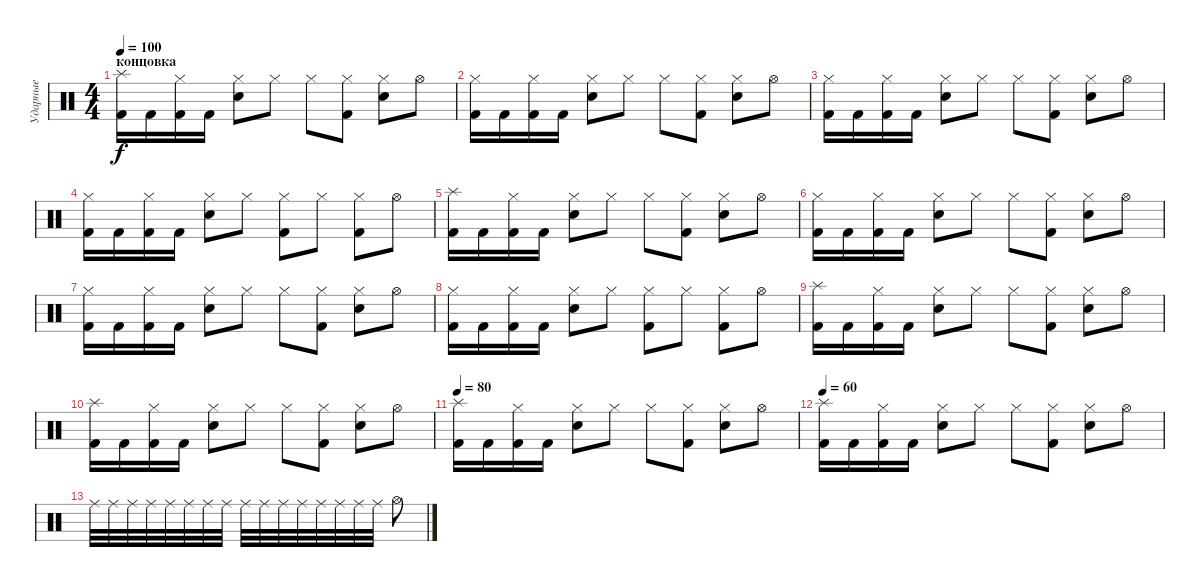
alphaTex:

\track ("Ударные" "Ударные") {instrument percussion}
\staff {score}
\articulation defaults
\ts (4 4)
\section ("" "концовка")
\tempo 100
\clef neutral
\ks c
("Splash (hit)" "Kick (hit) 2").16{dy f} "Kick (hit) 2".16 ("Hi-Hat (closed)" "Kick (hit) 2").16 "Kick (hit) 2".16 ("Hi-Hat (closed)" "Snare (hit) 2").8 "Hi-Hat (closed)".8 "Hi-Hat (closed)".8 ("Hi-Hat (closed)" "Kick (hit) 2").8 ("Hi-Hat (closed)" "Snare (hit) 2").8 "Hi-Hat (open)".8 |
("Hi-Hat (closed)" "Kick (hit) 2").16 "Kick (hit) 2".16 ("Hi-Hat (closed)" "Kick (hit) 2").16 "Kick (hit) 2".16 ("Hi-Hat (closed)" "Snare (hit) 2").8 "Hi-Hat (closed)".8 "Hi-Hat (closed)".8 ("Hi-Hat (closed)" "Kick (hit) 2").8 ("Hi-Hat (closed)" "Snare (hit) 2").8 "Hi-Hat (open)".8 |
("Hi-Hat (closed)" "Kick (hit) 2").16 "Kick (hit) 2".16 ("Hi-Hat (closed)" "Kick (hit) 2").16 "Kick (hit) 2".16 ("Hi-Hat (closed)" "Snare (hit) 2").8 "Hi-Hat (closed)".8 "Hi-Hat (closed)".8 ("Hi-Hat (closed)" "Kick (hit) 2").8 ("Hi-Hat (closed)" "Snare (hit) 2").8 "Hi-Hat (open)".8 |
("Hi-Hat (closed)" "Kick (hit) 2").16 "Kick (hit) 2".16 ("Hi-Hat (closed)" "Kick (hit) 2").16 "Kick (hit) 2".16 ("Hi-Hat (closed)" "Snare (hit) 2").8 "Hi-Hat (closed)".8 ("Hi-Hat (closed)" "Kick (hit) 2").8 "Hi-Hat (closed)".8 ("Hi-Hat (closed)" "Kick (hit) 2").8 "Hi-Hat (open)".8 |
("Splash (hit)" "Kick (hit) 2").16 "Kick (hit) 2".16 ("Hi-Hat (closed)" "Kick (hit) 2").16 "Kick (hit) 2".16 ("Hi-Hat (closed)" "Snare (hit) 2").8 "Hi-Hat (closed)".8 "Hi-Hat (closed)".8 ("Hi-Hat (closed)" "Kick (hit) 2").8 ("Hi-Hat (closed)" "Snare (hit) 2").8 "Hi-Hat (open)".8 |
("Hi-Hat (closed)" "Kick (hit) 2").16 "Kick (hit) 2".16 ("Hi-Hat (closed)" "Kick (hit) 2").16 "Kick (hit) 2".16 ("Hi-Hat (closed)" "Snare (hit) 2").8 "Hi-Hat (closed)".8 "Hi-Hat (closed)".8 ("Hi-Hat (closed)" "Kick (hit) 2").8 ("Hi-Hat (closed)" "Snare (hit) 2").8 "Hi-Hat (open)".8 |
("Hi-Hat (closed)" "Kick (hit) 2").16 "Kick (hit) 2".16 ("Hi-Hat (closed)" "Kick (hit) 2").16 "Kick (hit) 2".16 ("Hi-Hat (closed)" "Snare (hit) 2").8 "Hi-Hat (closed)".8 "Hi-Hat (closed)".8 ("Hi-Hat (closed)" "Kick (hit) 2").8 ("Hi-Hat (closed)" "Snare (hit) 2").8 "Hi-Hat (open)".8 |
("Hi-Hat (closed)" "Kick (hit) 2").16 "Kick (hit) 2".16 ("Hi-Hat (closed)" "Kick (hit) 2").16 "Kick (hit) 2".16 ("Hi-Hat (closed)" "Snare (hit) 2").8 "Hi-Hat (closed)".8 ("Hi-Hat (closed)" "Kick (hit) 2").8 "Hi-Hat (closed)".8 ("Hi-Hat (closed)" "Kick (hit) 2").8 "Hi-Hat (open)".8 |
("Splash (hit)" "Kick (hit) 2").16 "Kick (hit) 2".16 ("Hi-Hat (closed)" "Kick (hit) 2").16 "Kick (hit) 2".16 ("Hi-Hat (closed)" "Snare (hit) 2").8 "Hi-Hat (closed)".8 "Hi-Hat (closed)".8 ("Hi-Hat (closed)" "Kick (hit) 2").8 ("Hi-Hat (closed)" "Snare (hit) 2").8 "Hi-Hat (open)".8 |
("Splash (hit)" "Kick (hit) 2").16 "Kick (hit) 2".16 ("Hi-Hat (closed)" "Kick (hit) 2").16 "Kick (hit) 2".16 ("Hi-Hat (closed)" "Snare (hit) 2").8 "Hi-Hat (closed)".8 "Hi-Hat (closed)".8 ("Hi-Hat (closed)" "Kick (hit) 2").8 ("Hi-Hat (closed)" "Snare (hit) 2").8 "Hi-Hat (open)".8 |
\tempo 80
("Splash (hit)" "Kick (hit) 2").16 "Kick (hit) 2".16 ("Hi-Hat (closed)" "Kick (hit) 2").16 "Kick (hit) 2".16 ("Hi-Hat (closed)" "Snare (hit) 2").8 "Hi-Hat (closed)".8 "Hi-Hat (closed)".8 ("Hi-Hat (closed)" "Kick (hit) 2").8 ("Hi-Hat (closed)" "Snare (hit) 2").8 "Hi-Hat (open)".8 |
\tempo 60
("Splash (hit)" "Kick (hit) 2").16 "Kick (hit) 2".16 ("Hi-Hat (closed)" "Kick (hit) 2").16 "Kick (hit) 2".16 ("Hi-Hat (closed)" "Snare (hit) 2").8 "Hi-Hat (closed)".8 "Hi-Hat (closed)".8 ("Hi-Hat (closed)" "Kick (hit) 2").8 ("Hi-Hat (closed)" "Snare (hit) 2").8 "Hi-Hat (open)".8 |
"Ride (middle)".32 "Ride (middle)".32 "Ride (middle)".32 "Ride (middle)".32 "Ride (middle)".32 "Ride (middle)".32 "Ride (middle)".32 "Ride (middle)".32 "Ride (middle)".32 "Ride (middle)".32 "Ride (middle)".32 "Ride (middle)".32 "Ride (middle)".32 "Ride (middle)".32 "Ride (middle)".32 "Ride (middle)".32 "Hi-Hat (open)".8
